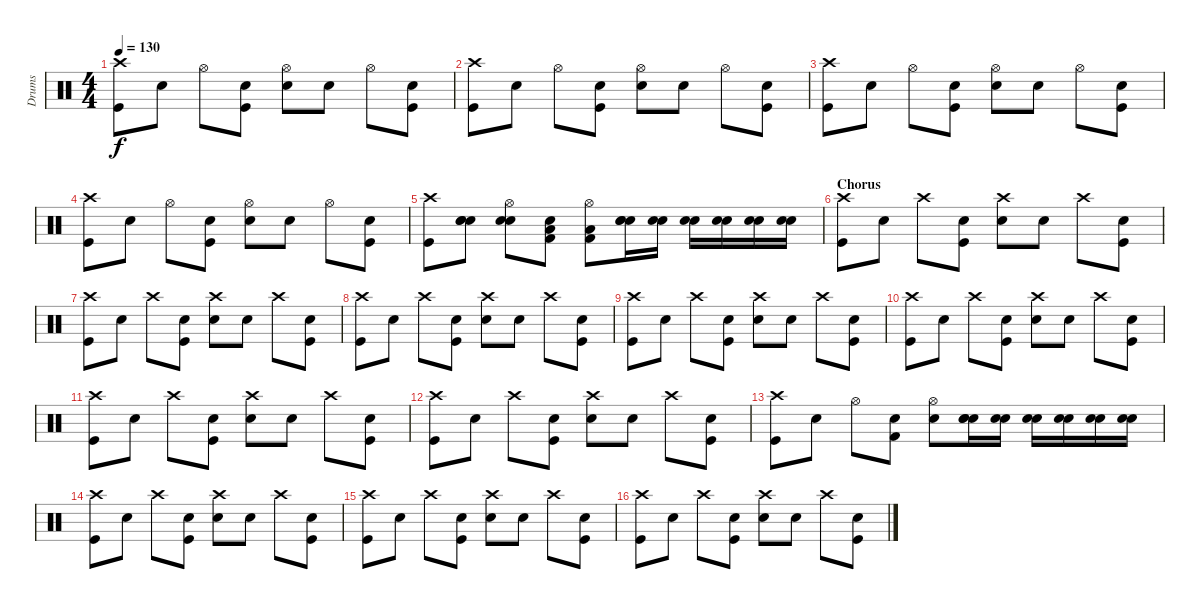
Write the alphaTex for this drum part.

\track ("Drums" "Drums") {instrument percussion}
\staff {score}
\articulation defaults
\ts (4 4)
\tempo 130
\clef neutral
\ks c
("Crash high (hit)" "Kick (hit)").8{dy f} "Snare (hit)"{x}.8 "Hi-Hat (open)".8 ("Snare (hit)"{x} "Kick (hit)").8 ("Hi-Hat (open)" "Electric Snare (hit)").8 "Snare (hit)"{x}.8 "Hi-Hat (open)".8 ("Snare (hit)"{x} "Kick (hit)").8 |
("Crash high (hit)" "Kick (hit)").8 "Snare (hit)"{x}.8 "Hi-Hat (open)".8 ("Snare (hit)"{x} "Kick (hit)").8 ("Hi-Hat (open)" "Electric Snare (hit)").8 "Snare (hit)"{x}.8 "Hi-Hat (open)".8 ("Snare (hit)"{x} "Kick (hit)").8 |
("Crash high (hit)" "Kick (hit)").8 "Snare (hit)"{x}.8 "Hi-Hat (open)".8 ("Snare (hit)"{x} "Kick (hit)").8 ("Hi-Hat (open)" "Electric Snare (hit)").8 "Snare (hit)"{x}.8 "Hi-Hat (open)".8 ("Snare (hit)"{x} "Kick (hit)").8 |
("Crash high (hit)" "Kick (hit)").8 "Snare (hit)"{x}.8 "Hi-Hat (open)".8 ("Snare (hit)"{x} "Kick (hit)").8 ("Hi-Hat (open)" "Electric Snare (hit)").8 "Snare (hit)"{x}.8 "Hi-Hat (open)".8 ("Snare (hit)"{x} "Kick (hit)").8 |
("Crash high (hit)" "Kick (hit)").8 ("Snare (hit)"{x} "Snare (hit) 2" "Electric Snare (hit)").8 ("Hi-Hat (open)" "Snare (hit) 2" "Electric Snare (hit)").8 ("Snare (hit)"{x} "Kick (hit) 2" "Low Tom (hit)").8 ("Hi-Hat (open)" "Kick (hit) 2" "Low Tom (hit)").8 ("Snare (hit)"{x} "Electric Snare (hit)" "Electric Snare (hit)").16 ("Electric Snare (hit)" "Electric Snare (hit)").16 ("Electric Snare (hit)" "Electric Snare (hit)").16 ("Electric Snare (hit)" "Electric Snare (hit)").16 ("Electric Snare (hit)" "Electric Snare (hit)").16 ("Electric Snare (hit)" "Electric Snare (hit)").16 |
\section ("" "Chorus")
("Crash high (hit)" "Kick (hit)").8 "Snare (hit)"{x}.8 "Crash high (hit)".8 ("Snare (hit)"{x} "Kick (hit)").8 ("Crash high (hit)" "Electric Snare (hit)").8 "Snare (hit)"{x}.8 "Crash high (hit)".8 ("Snare (hit)"{x} "Kick (hit)").8 |
("Crash high (hit)" "Kick (hit)").8 "Snare (hit)"{x}.8 "Crash high (hit)".8 ("Snare (hit)"{x} "Kick (hit)").8 ("Crash high (hit)" "Electric Snare (hit)").8 "Snare (hit)"{x}.8 "Crash high (hit)".8 ("Snare (hit)"{x} "Kick (hit)").8 |
("Crash high (hit)" "Kick (hit)").8 "Snare (hit)"{x}.8 "Crash high (hit)".8 ("Snare (hit)"{x} "Kick (hit)").8 ("Crash high (hit)" "Electric Snare (hit)").8 "Snare (hit)"{x}.8 "Crash high (hit)".8 ("Snare (hit)"{x} "Kick (hit)").8 |
("Crash high (hit)" "Kick (hit)").8 "Snare (hit)"{x}.8 "Crash high (hit)".8 ("Snare (hit)"{x} "Kick (hit)").8 ("Crash high (hit)" "Electric Snare (hit)").8 "Snare (hit)"{x}.8 "Crash high (hit)".8 ("Snare (hit)"{x} "Kick (hit)").8 |
("Crash high (hit)" "Kick (hit)").8 "Snare (hit)"{x}.8 "Crash high (hit)".8 ("Snare (hit)"{x} "Kick (hit)").8 ("Crash high (hit)" "Electric Snare (hit)").8 "Snare (hit)"{x}.8 "Crash high (hit)".8 ("Snare (hit)"{x} "Kick (hit)").8 |
("Crash high (hit)" "Kick (hit)").8 "Snare (hit)"{x}.8 "Crash high (hit)".8 ("Snare (hit)"{x} "Kick (hit)").8 ("Crash high (hit)" "Electric Snare (hit)").8 "Snare (hit)"{x}.8 "Crash high (hit)".8 ("Snare (hit)"{x} "Kick (hit)").8 |
("Crash high (hit)" "Kick (hit)").8 "Snare (hit)"{x}.8 "Crash high (hit)".8 ("Snare (hit)"{x} "Kick (hit)").8 ("Crash high (hit)" "Electric Snare (hit)").8 "Snare (hit)"{x}.8 "Crash high (hit)".8 ("Snare (hit)"{x} "Kick (hit)").8 |
("Crash high (hit)" "Kick (hit)").8 "Snare (hit)"{x}.8 "Hi-Hat (open)".8 ("Snare (hit)"{x} "Kick (hit) 2").8 ("Hi-Hat (open)" "Electric Snare (hit)").8 ("Snare (hit)"{x} "Electric Snare (hit)" "Electric Snare (hit)").16 ("Electric Snare (hit)" "Electric Snare (hit)").16 ("Electric Snare (hit)" "Electric Snare (hit)").16 ("Electric Snare (hit)" "Electric Snare (hit)").16 ("Electric Snare (hit)" "Electric Snare (hit)").16 ("Electric Snare (hit)" "Electric Snare (hit)").16 |
("Crash high (hit)" "Kick (hit)").8 "Snare (hit)"{x}.8 "Crash high (hit)".8 ("Snare (hit)"{x} "Kick (hit)").8 ("Crash high (hit)" "Electric Snare (hit)").8 "Snare (hit)"{x}.8 "Crash high (hit)".8 ("Snare (hit)"{x} "Kick (hit)").8 |
("Crash high (hit)" "Kick (hit)").8 "Snare (hit)"{x}.8 "Crash high (hit)".8 ("Snare (hit)"{x} "Kick (hit)").8 ("Crash high (hit)" "Electric Snare (hit)").8 "Snare (hit)"{x}.8 "Crash high (hit)".8 ("Snare (hit)"{x} "Kick (hit)").8 |
("Crash high (hit)" "Kick (hit)").8 "Snare (hit)"{x}.8 "Crash high (hit)".8 ("Snare (hit)"{x} "Kick (hit)").8 ("Crash high (hit)" "Electric Snare (hit)").8 "Snare (hit)"{x}.8 "Crash high (hit)".8 ("Snare (hit)"{x} "Kick (hit)").8
